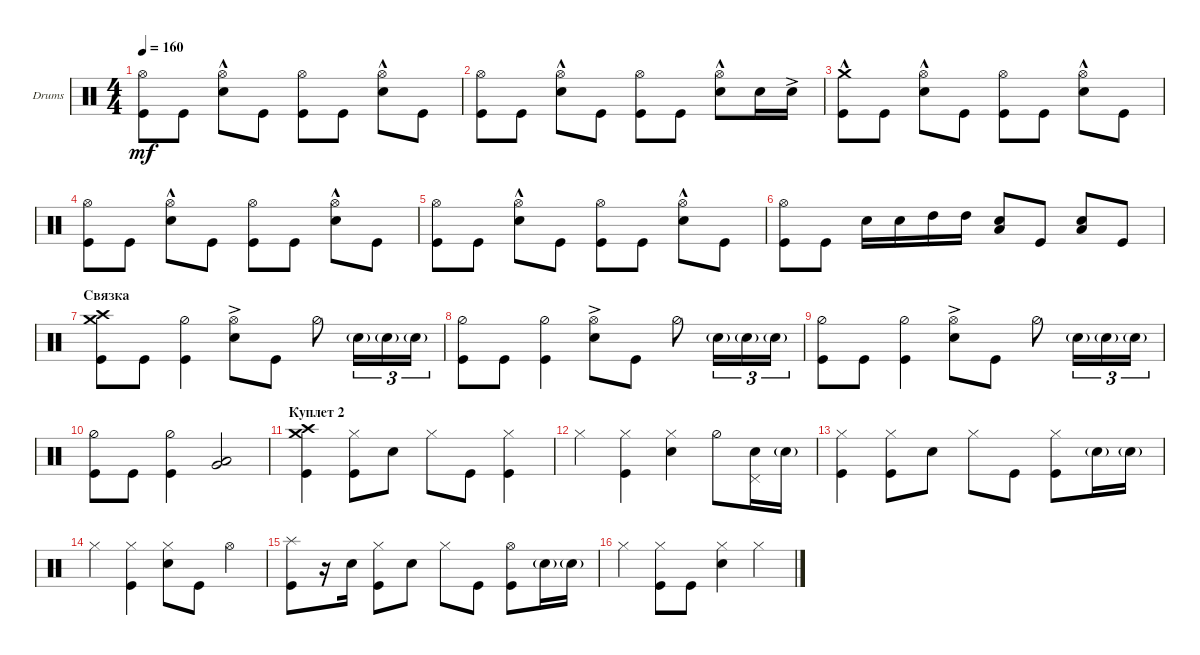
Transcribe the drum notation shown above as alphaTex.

\defaultSystemsLayout 4
\bracketExtendMode groupsimilarinstruments
\firstSystemTrackNameOrientation horizontal
\otherSystemsTrackNameOrientation horizontal
\track ("Drumkit" "Drums") {instrument percussion}
\staff {score}
\articulation defaults
\ts (4 4)
\tempo 160
\clef neutral
\ks c
("Kick (hit)" "Hi-Hat (open)").8{dy mf} "Kick (hit)".8 ("Snare (hit) 2"{hac} "Hi-Hat (open)").8 "Kick (hit)".8 ("Kick (hit)" "Hi-Hat (open)").8 "Kick (hit)".8 ("Snare (hit) 2"{hac} "Hi-Hat (open)").8 "Kick (hit)".8 |
("Kick (hit)" "Hi-Hat (open)").8 "Kick (hit)".8 ("Snare (hit) 2"{hac} "Hi-Hat (open)").8 "Kick (hit)".8 ("Kick (hit)" "Hi-Hat (open)").8 "Kick (hit)".8 ("Snare (hit) 2"{hac} "Hi-Hat (open)").8 "Snare (hit) 2".16 "Snare (hit) 2"{ac}.16 |
("Kick (hit)" "Crash medium (hit)"{hac}).8 "Kick (hit)".8 ("Snare (hit) 2"{hac} "Hi-Hat (open)").8 "Kick (hit)".8 ("Kick (hit)" "Hi-Hat (open)").8 "Kick (hit)".8 ("Snare (hit) 2"{hac} "Hi-Hat (open)").8 "Kick (hit)".8 |
("Kick (hit)" "Hi-Hat (open)").8 "Kick (hit)".8 ("Snare (hit) 2"{hac} "Hi-Hat (open)").8 "Kick (hit)".8 ("Kick (hit)" "Hi-Hat (open)").8 "Kick (hit)".8 ("Snare (hit) 2"{hac} "Hi-Hat (open)").8 "Kick (hit)".8 |
("Kick (hit)" "Hi-Hat (open)").8 "Kick (hit)".8 ("Snare (hit) 2"{hac} "Hi-Hat (open)").8 "Kick (hit)".8 ("Kick (hit)" "Hi-Hat (open)").8 "Kick (hit)".8 ("Snare (hit) 2"{hac} "Hi-Hat (open)").8 "Kick (hit)".8 |
("Kick (hit)" "Hi-Hat (open)").8 "Kick (hit)".8 "Snare (hit) 2".16 "Snare (hit) 2".16 "High Tom (hit)".16 "High Tom (hit)".16 ("Snare (hit) 2" "Low Tom (hit)").8 "Kick (hit)".8 ("Snare (hit) 2" "Low Tom (hit)").8 "Kick (hit)".8 |
\section ("" "Связка")
("Kick (hit)" "Crash medium (hit)" "Crash high (hit)").8 "Kick (hit)".8 ("Kick (hit)" "Hi-Hat (half)").4 ("Snare (hit) 2"{ac} "Hi-Hat (open)").8 "Kick (hit)".8 "Hi-Hat (half)".8 "Snare (hit) 2"{g}.16{tu (3 2)} "Snare (hit) 2"{g}.16{tu (3 2)} "Snare (hit) 2"{g}.16{tu (3 2)} |
("Kick (hit)" "Hi-Hat (half)").8 "Kick (hit)".8 ("Kick (hit)" "Hi-Hat (half)").4 ("Snare (hit) 2"{ac} "Hi-Hat (open)").8 "Kick (hit)".8 "Hi-Hat (half)".8 "Snare (hit) 2"{g}.16{tu (3 2)} "Snare (hit) 2"{g}.16{tu (3 2)} "Snare (hit) 2"{g}.16{tu (3 2)} |
("Kick (hit)" "Hi-Hat (half)").8 "Kick (hit)".8 ("Kick (hit)" "Hi-Hat (half)").4 ("Snare (hit) 2"{ac} "Hi-Hat (open)").8 "Kick (hit)".8 "Hi-Hat (half)".8 "Snare (hit) 2"{g}.16{tu (3 2)} "Snare (hit) 2"{g}.16{tu (3 2)} "Snare (hit) 2"{g}.16{tu (3 2)} |
("Kick (hit)" "Hi-Hat (half)").8 "Kick (hit)".8 ("Kick (hit)" "Hi-Hat (half)").4 ("Low Tom (hit)" "Very Low Tom (hit)").2 |
\section ("" "Куплет 2")
("Kick (hit)" "Crash medium (hit)" "Crash high (hit)").4 ("Hi-Hat (closed)" "Kick (hit)").8 "Snare (hit) 2".8 "Hi-Hat (closed)".8 "Kick (hit)".8 ("Kick (hit)" "Hi-Hat (closed)").4 |
"Hi-Hat (closed)".4 ("Kick (hit)" "Hi-Hat (closed)").4 ("Hi-Hat (closed)" "Snare (hit) 2").4 "Hi-Hat (half)".8 ("Snare (hit) 2" "Pedal Hi-Hat (hit)").16 "Snare (hit) 2"{g}.16 |
("Hi-Hat (closed)" "Kick (hit)").4 ("Hi-Hat (closed)" "Kick (hit)").8 "Snare (hit) 2".8 "Hi-Hat (closed)".8 "Kick (hit)".8 ("Hi-Hat (closed)" "Kick (hit)").8 "Snare (hit) 2"{g}.16 "Snare (hit) 2"{g}.16 |
"Hi-Hat (closed)".4 ("Kick (hit)" "Hi-Hat (closed)").4 ("Snare (hit) 2" "Hi-Hat (closed)").8 "Kick (hit)".8 "Hi-Hat (open)".4 |
("Kick (hit)" "Splash (hit)").8 r.16 "Snare (hit) 2".16 ("Kick (hit)" "Hi-Hat (closed)").8 "Snare (hit) 2".8 "Hi-Hat (closed)".8 "Kick (hit)".8 ("Kick (hit)" "Hi-Hat (open)").8 "Snare (hit) 2"{g}.16 "Snare (hit) 2"{g}.16 |
"Hi-Hat (closed)".4 ("Kick (hit)" "Hi-Hat (closed)").8 "Kick (hit)".8 ("Snare (hit) 2" "Hi-Hat (closed)").4 "Hi-Hat (closed)".4
